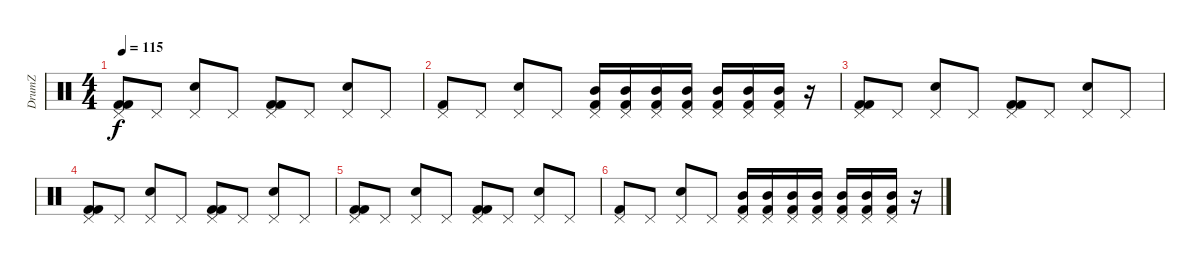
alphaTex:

\track ("DrumZ" "DrumZ") {instrument percussion}
\staff {score}
\articulation defaults
\ts (4 4)
\tempo 115
\clef neutral
\ks c
("Pedal Hi-Hat (hit)" "Kick (hit) 2" "Kick (hit) 2").8{dy f} "Pedal Hi-Hat (hit)".8 ("Pedal Hi-Hat (hit)" "Electric Snare (hit)").8 "Pedal Hi-Hat (hit)".8 ("Pedal Hi-Hat (hit)" "Kick (hit) 2" "Kick (hit) 2").8 "Pedal Hi-Hat (hit)".8 ("Pedal Hi-Hat (hit)" "Electric Snare (hit)").8 "Pedal Hi-Hat (hit)".8 |
("Pedal Hi-Hat (hit)" "Kick (hit) 2").8 "Pedal Hi-Hat (hit)".8 ("Pedal Hi-Hat (hit)" "Electric Snare (hit)").8 "Pedal Hi-Hat (hit)".8 ("Pedal Hi-Hat (hit)" "Kick (hit) 2" "Mid Tom (hit)").16 ("Pedal Hi-Hat (hit)" "Kick (hit) 2" "Mid Tom (hit)").16 ("Pedal Hi-Hat (hit)" "Kick (hit) 2" "Mid Tom (hit)").16 ("Pedal Hi-Hat (hit)" "Kick (hit) 2" "Mid Tom (hit)").16 ("Pedal Hi-Hat (hit)" "Kick (hit) 2" "Mid Tom (hit)").16 ("Pedal Hi-Hat (hit)" "Kick (hit) 2" "Mid Tom (hit)").16 ("Pedal Hi-Hat (hit)" "Kick (hit) 2" "Mid Tom (hit)").16 r.16 |
("Pedal Hi-Hat (hit)" "Kick (hit) 2" "Kick (hit) 2").8{volume 12} "Pedal Hi-Hat (hit)".8 ("Pedal Hi-Hat (hit)" "Electric Snare (hit)").8 "Pedal Hi-Hat (hit)".8 ("Pedal Hi-Hat (hit)" "Kick (hit) 2" "Kick (hit) 2").8{volume 10} "Pedal Hi-Hat (hit)".8 ("Pedal Hi-Hat (hit)" "Electric Snare (hit)").8 "Pedal Hi-Hat (hit)".8 |
("Pedal Hi-Hat (hit)" "Kick (hit) 2" "Kick (hit) 2").8 "Pedal Hi-Hat (hit)".8{volume 8} ("Pedal Hi-Hat (hit)" "Electric Snare (hit)").8 "Pedal Hi-Hat (hit)".8 ("Pedal Hi-Hat (hit)" "Kick (hit) 2" "Kick (hit) 2").8 "Pedal Hi-Hat (hit)".8{volume 6} ("Pedal Hi-Hat (hit)" "Electric Snare (hit)").8 "Pedal Hi-Hat (hit)".8 |
("Pedal Hi-Hat (hit)" "Kick (hit) 2" "Kick (hit) 2").8 "Pedal Hi-Hat (hit)".8 ("Pedal Hi-Hat (hit)" "Electric Snare (hit)").8 "Pedal Hi-Hat (hit)".8{volume 4} ("Pedal Hi-Hat (hit)" "Kick (hit) 2" "Kick (hit) 2").8 "Pedal Hi-Hat (hit)".8 ("Pedal Hi-Hat (hit)" "Electric Snare (hit)").8 "Pedal Hi-Hat (hit)".8 |
("Pedal Hi-Hat (hit)" "Kick (hit) 2").8 "Pedal Hi-Hat (hit)".8{volume 3} ("Pedal Hi-Hat (hit)" "Electric Snare (hit)").8 "Pedal Hi-Hat (hit)".8 ("Pedal Hi-Hat (hit)" "Kick (hit) 2" "Mid Tom (hit)").16{volume 2} ("Pedal Hi-Hat (hit)" "Kick (hit) 2" "Mid Tom (hit)").16 ("Pedal Hi-Hat (hit)" "Kick (hit) 2" "Mid Tom (hit)").16 ("Pedal Hi-Hat (hit)" "Kick (hit) 2" "Mid Tom (hit)").16{volume 1} ("Pedal Hi-Hat (hit)" "Kick (hit) 2" "Mid Tom (hit)").16 ("Pedal Hi-Hat (hit)" "Kick (hit) 2" "Mid Tom (hit)").16 ("Pedal Hi-Hat (hit)" "Kick (hit) 2" "Mid Tom (hit)").16{volume 0} r.16
